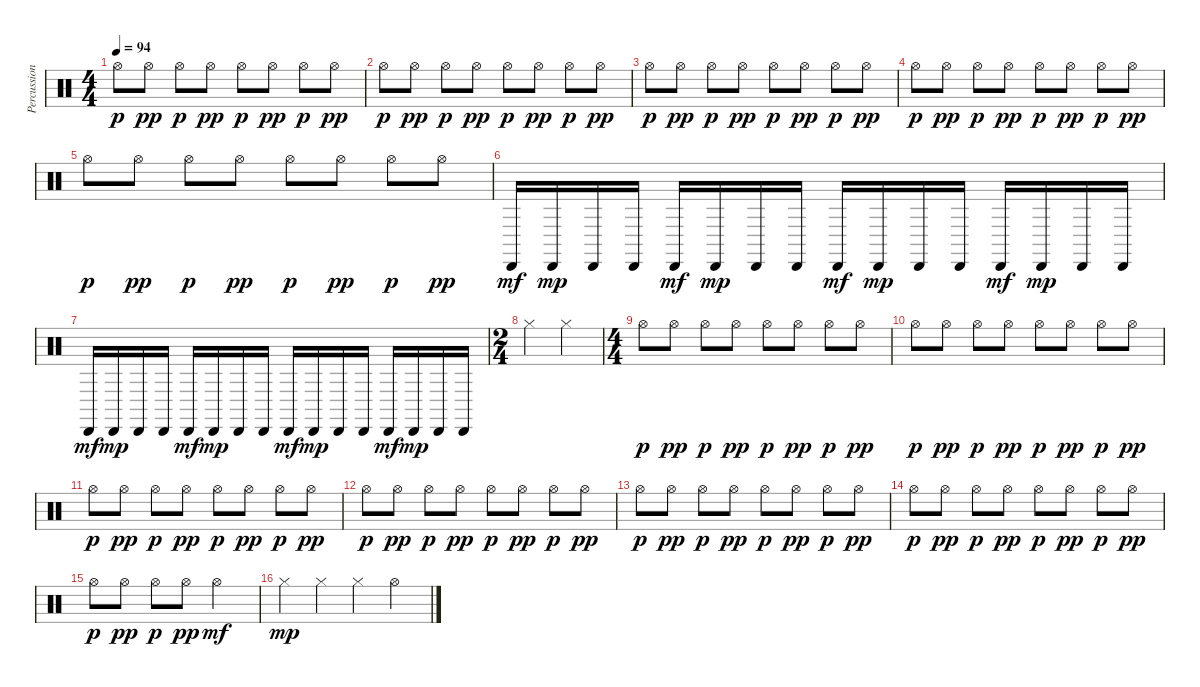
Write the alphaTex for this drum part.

\track ("Percussions" "Percussion") {instrument percussion}
\staff {score}
\articulation defaults
\ts (4 4)
\tempo 94
\clef neutral
\ks c "Hi-Hat (open)".8{dy p} "Hi-Hat (open)".8{dy pp} "Hi-Hat (open)".8{dy p} "Hi-Hat (open)".8{dy pp} "Hi-Hat (open)".8{dy p} "Hi-Hat (open)".8{dy pp} "Hi-Hat (open)".8{dy p} "Hi-Hat (open)".8{dy pp}
|
"Hi-Hat (open)".8{dy p} "Hi-Hat (open)".8{dy pp} "Hi-Hat (open)".8{dy p} "Hi-Hat (open)".8{dy pp} "Hi-Hat (open)".8{dy p} "Hi-Hat (open)".8{dy pp} "Hi-Hat (open)".8{dy p} "Hi-Hat (open)".8{dy pp} |
"Hi-Hat (open)".8{dy p} "Hi-Hat (open)".8{dy pp} "Hi-Hat (open)".8{dy p} "Hi-Hat (open)".8{dy pp} "Hi-Hat (open)".8{dy p} "Hi-Hat (open)".8{dy pp} "Hi-Hat (open)".8{dy p} "Hi-Hat (open)".8{dy pp} |
"Hi-Hat (open)".8{dy p} "Hi-Hat (open)".8{dy pp} "Hi-Hat (open)".8{dy p} "Hi-Hat (open)".8{dy pp} "Hi-Hat (open)".8{dy p} "Hi-Hat (open)".8{dy pp} "Hi-Hat (open)".8{dy p} "Hi-Hat (open)".8{dy pp} |
"Hi-Hat (open)".8{dy p} "Hi-Hat (open)".8{dy pp} "Hi-Hat (open)".8{dy p} "Hi-Hat (open)".8{dy pp} "Hi-Hat (open)".8{dy p} "Hi-Hat (open)".8{dy pp} "Hi-Hat (open)".8{dy p} "Hi-Hat (open)".8{dy pp} |
"Cabasa (hit)".16{dy mf} "Cabasa (hit)".16{dy mp} "Cabasa (hit)".16 "Cabasa (hit)".16 "Cabasa (hit)".16{dy mf} "Cabasa (hit)".16{dy mp} "Cabasa (hit)".16 "Cabasa (hit)".16 "Cabasa (hit)".16{dy mf} "Cabasa (hit)".16{dy mp} "Cabasa (hit)".16 "Cabasa (hit)".16 "Cabasa (hit)".16{dy mf} "Cabasa (hit)".16{dy mp} "Cabasa (hit)".16 "Cabasa (hit)".16 |
"Cabasa (hit)".16{dy mf} "Cabasa (hit)".16{dy mp} "Cabasa (hit)".16 "Cabasa (hit)".16 "Cabasa (hit)".16{dy mf} "Cabasa (hit)".16{dy mp} "Cabasa (hit)".16 "Cabasa (hit)".16 "Cabasa (hit)".16{dy mf} "Cabasa (hit)".16{dy mp} "Cabasa (hit)".16 "Cabasa (hit)".16 "Cabasa (hit)".16{dy mf} "Cabasa (hit)".16{dy mp} "Cabasa (hit)".16 "Cabasa (hit)".16 |
\ts (2 4)
"Hi-Hat (closed)".4 "Hi-Hat (closed)".4 |
\ts (4 4)
"Hi-Hat (open)".8{dy p} "Hi-Hat (open)".8{dy pp} "Hi-Hat (open)".8{dy p} "Hi-Hat (open)".8{dy pp} "Hi-Hat (open)".8{dy p} "Hi-Hat (open)".8{dy pp} "Hi-Hat (open)".8{dy p} "Hi-Hat (open)".8{dy pp} |
"Hi-Hat (open)".8{dy p} "Hi-Hat (open)".8{dy pp} "Hi-Hat (open)".8{dy p} "Hi-Hat (open)".8{dy pp} "Hi-Hat (open)".8{dy p} "Hi-Hat (open)".8{dy pp} "Hi-Hat (open)".8{dy p} "Hi-Hat (open)".8{dy pp} |
"Hi-Hat (open)".8{dy p} "Hi-Hat (open)".8{dy pp} "Hi-Hat (open)".8{dy p} "Hi-Hat (open)".8{dy pp} "Hi-Hat (open)".8{dy p} "Hi-Hat (open)".8{dy pp} "Hi-Hat (open)".8{dy p} "Hi-Hat (open)".8{dy pp} |
"Hi-Hat (open)".8{dy p} "Hi-Hat (open)".8{dy pp} "Hi-Hat (open)".8{dy p} "Hi-Hat (open)".8{dy pp} "Hi-Hat (open)".8{dy p} "Hi-Hat (open)".8{dy pp} "Hi-Hat (open)".8{dy p} "Hi-Hat (open)".8{dy pp} |
"Hi-Hat (open)".8{dy p} "Hi-Hat (open)".8{dy pp} "Hi-Hat (open)".8{dy p} "Hi-Hat (open)".8{dy pp} "Hi-Hat (open)".8{dy p} "Hi-Hat (open)".8{dy pp} "Hi-Hat (open)".8{dy p} "Hi-Hat (open)".8{dy pp} |
"Hi-Hat (open)".8{dy p} "Hi-Hat (open)".8{dy pp} "Hi-Hat (open)".8{dy p} "Hi-Hat (open)".8{dy pp} "Hi-Hat (open)".8{dy p} "Hi-Hat (open)".8{dy pp} "Hi-Hat (open)".8{dy p} "Hi-Hat (open)".8{dy pp} |
"Hi-Hat (open)".8{dy p} "Hi-Hat (open)".8{dy pp} "Hi-Hat (open)".8{dy p} "Hi-Hat (open)".8{dy pp} "Hi-Hat (open)".2{dy mf} |
"Hi-Hat (closed)".4{dy mp} "Hi-Hat (closed)".4 "Hi-Hat (closed)".4 "Hi-Hat (open)".4
